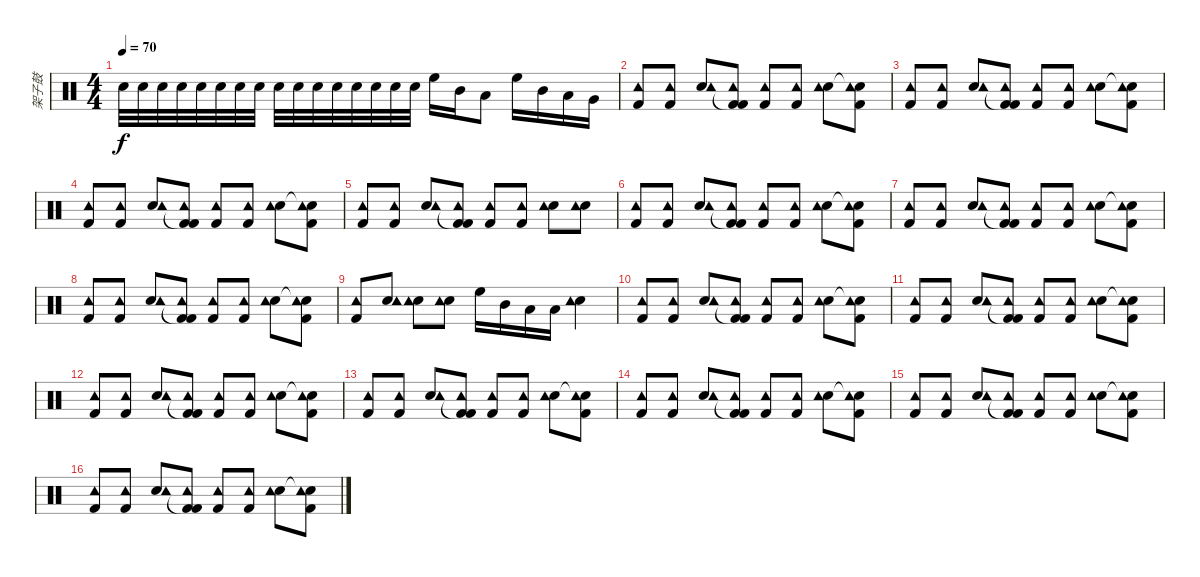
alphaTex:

\track ("架子鼓" "架子鼓") {instrument percussion}
\staff {score}
\articulation defaults
\ts (4 4)
\tempo 70
\clef neutral
\ks c "Snare (hit) 2".32{dy f} "Snare (hit) 2".32 "Snare (hit) 2".32 "Snare (hit) 2".32 "Snare (hit) 2".32 "Snare (hit) 2".32 "Snare (hit) 2".32 "Snare (hit) 2".32 "Snare (hit) 2".32 "Snare (hit) 2".32 "Snare (hit) 2".32 "Snare (hit) 2".32 "Snare (hit) 2".32 "Snare (hit) 2".32 "Snare (hit) 2".32 "Snare (hit) 2".32 "High Floor Tom (hit)".16 "Mid Tom (hit)".16 "Low Tom (hit)".8 "High Floor Tom (hit)".16 "Mid Tom (hit)".16 "Low Tom (hit)".16 "Very Low Tom (hit)".16
|
("Kick (hit) 2" "Tambourine (hit)").8 ("Kick (hit) 2" "Tambourine (hit)").8 ("Snare (hit) 2" "Tambourine (hit)").8 ("Kick (hit) 2"{t} "Tambourine (hit)" "Kick (hit) 2").8 ("Kick (hit) 2" "Tambourine (hit)").8 ("Kick (hit) 2" "Tambourine (hit)").8 ("Snare (hit) 2" "Tambourine (hit)").8 ("Snare (hit) 2"{t} "Tambourine (hit)" "Kick (hit) 2").8 |
("Kick (hit) 2" "Tambourine (hit)").8 ("Kick (hit) 2" "Tambourine (hit)").8 ("Snare (hit) 2" "Tambourine (hit)").8 ("Kick (hit) 2"{t} "Tambourine (hit)" "Kick (hit) 2").8 ("Kick (hit) 2" "Tambourine (hit)").8 ("Kick (hit) 2" "Tambourine (hit)").8 ("Snare (hit) 2" "Tambourine (hit)").8 ("Snare (hit) 2"{t} "Tambourine (hit)" "Kick (hit) 2").8 |
("Kick (hit) 2" "Tambourine (hit)").8 ("Kick (hit) 2" "Tambourine (hit)").8 ("Snare (hit) 2" "Tambourine (hit)").8 ("Kick (hit) 2"{t} "Tambourine (hit)" "Kick (hit) 2").8 ("Kick (hit) 2" "Tambourine (hit)").8 ("Kick (hit) 2" "Tambourine (hit)").8 ("Snare (hit) 2" "Tambourine (hit)").8 ("Snare (hit) 2"{t} "Tambourine (hit)" "Kick (hit) 2").8 |
("Kick (hit) 2" "Tambourine (hit)").8 ("Kick (hit) 2" "Tambourine (hit)").8 ("Snare (hit) 2" "Tambourine (hit)").8 ("Kick (hit) 2"{t} "Tambourine (hit)" "Kick (hit) 2").8 ("Kick (hit) 2" "Tambourine (hit)").8 ("Kick (hit) 2" "Tambourine (hit)").8 ("Snare (hit) 2" "Tambourine (hit)").8 ("Snare (hit) 2" "Tambourine (hit)").8 |
("Kick (hit) 2" "Tambourine (hit)").8 ("Kick (hit) 2" "Tambourine (hit)").8 ("Snare (hit) 2" "Tambourine (hit)").8 ("Kick (hit) 2"{t} "Tambourine (hit)" "Kick (hit) 2").8 ("Kick (hit) 2" "Tambourine (hit)").8 ("Kick (hit) 2" "Tambourine (hit)").8 ("Snare (hit) 2" "Tambourine (hit)").8 ("Snare (hit) 2"{t} "Tambourine (hit)" "Kick (hit) 2").8 |
("Kick (hit) 2" "Tambourine (hit)").8 ("Kick (hit) 2" "Tambourine (hit)").8 ("Snare (hit) 2" "Tambourine (hit)").8 ("Kick (hit) 2"{t} "Tambourine (hit)" "Kick (hit) 2").8 ("Kick (hit) 2" "Tambourine (hit)").8 ("Kick (hit) 2" "Tambourine (hit)").8 ("Snare (hit) 2" "Tambourine (hit)").8 ("Snare (hit) 2"{t} "Tambourine (hit)" "Kick (hit) 2").8 |
("Kick (hit) 2" "Tambourine (hit)").8 ("Kick (hit) 2" "Tambourine (hit)").8 ("Snare (hit) 2" "Tambourine (hit)").8 ("Kick (hit) 2"{t} "Tambourine (hit)" "Kick (hit) 2").8 ("Kick (hit) 2" "Tambourine (hit)").8 ("Kick (hit) 2" "Tambourine (hit)").8 ("Snare (hit) 2" "Tambourine (hit)").8 ("Snare (hit) 2"{t} "Tambourine (hit)" "Kick (hit) 2").8 |
("Kick (hit) 2" "Tambourine (hit)").8 ("Snare (hit) 2" "Tambourine (hit)").8 ("Snare (hit) 2" "Tambourine (hit)").8 ("Snare (hit) 2" "Tambourine (hit)").8 "High Floor Tom (hit)".16 "Mid Tom (hit)".16 "Low Tom (hit)".16 "Low Floor Tom (hit)".16 ("Snare (hit) 2" "Tambourine (hit)").4 |
("Kick (hit) 2" "Tambourine (hit)").8 ("Kick (hit) 2" "Tambourine (hit)").8 ("Snare (hit) 2" "Tambourine (hit)").8 ("Kick (hit) 2"{t} "Tambourine (hit)" "Kick (hit) 2").8 ("Kick (hit) 2" "Tambourine (hit)").8 ("Kick (hit) 2" "Tambourine (hit)").8 ("Snare (hit) 2" "Tambourine (hit)").8 ("Snare (hit) 2"{t} "Tambourine (hit)" "Kick (hit) 2").8 |
("Kick (hit) 2" "Tambourine (hit)").8 ("Kick (hit) 2" "Tambourine (hit)").8 ("Snare (hit) 2" "Tambourine (hit)").8 ("Kick (hit) 2"{t} "Tambourine (hit)" "Kick (hit) 2").8 ("Kick (hit) 2" "Tambourine (hit)").8 ("Kick (hit) 2" "Tambourine (hit)").8 ("Snare (hit) 2" "Tambourine (hit)").8 ("Snare (hit) 2"{t} "Tambourine (hit)" "Kick (hit) 2").8 |
("Kick (hit) 2" "Tambourine (hit)").8 ("Kick (hit) 2" "Tambourine (hit)").8 ("Snare (hit) 2" "Tambourine (hit)").8 ("Kick (hit) 2"{t} "Tambourine (hit)" "Kick (hit) 2").8 ("Kick (hit) 2" "Tambourine (hit)").8 ("Kick (hit) 2" "Tambourine (hit)").8 ("Snare (hit) 2" "Tambourine (hit)").8 ("Snare (hit) 2"{t} "Tambourine (hit)" "Kick (hit) 2").8 |
("Kick (hit) 2" "Tambourine (hit)").8 ("Kick (hit) 2" "Tambourine (hit)").8 ("Snare (hit) 2" "Tambourine (hit)").8 ("Kick (hit) 2"{t} "Tambourine (hit)" "Kick (hit) 2").8 ("Kick (hit) 2" "Tambourine (hit)").8 ("Kick (hit) 2" "Tambourine (hit)").8 ("Snare (hit) 2" "Tambourine (hit)").8 ("Snare (hit) 2"{t} "Tambourine (hit)" "Kick (hit) 2").8 |
("Kick (hit) 2" "Tambourine (hit)").8 ("Kick (hit) 2" "Tambourine (hit)").8 ("Snare (hit) 2" "Tambourine (hit)").8 ("Kick (hit) 2"{t} "Tambourine (hit)" "Kick (hit) 2").8 ("Kick (hit) 2" "Tambourine (hit)").8 ("Kick (hit) 2" "Tambourine (hit)").8 ("Snare (hit) 2" "Tambourine (hit)").8 ("Snare (hit) 2"{t} "Tambourine (hit)" "Kick (hit) 2").8 |
("Kick (hit) 2" "Tambourine (hit)").8 ("Kick (hit) 2" "Tambourine (hit)").8 ("Snare (hit) 2" "Tambourine (hit)").8 ("Kick (hit) 2"{t} "Tambourine (hit)" "Kick (hit) 2").8 ("Kick (hit) 2" "Tambourine (hit)").8 ("Kick (hit) 2" "Tambourine (hit)").8 ("Snare (hit) 2" "Tambourine (hit)").8 ("Snare (hit) 2"{t} "Tambourine (hit)" "Kick (hit) 2").8 |
("Kick (hit) 2" "Tambourine (hit)").8 ("Kick (hit) 2" "Tambourine (hit)").8 ("Snare (hit) 2" "Tambourine (hit)").8 ("Kick (hit) 2"{t} "Tambourine (hit)" "Kick (hit) 2").8 ("Kick (hit) 2" "Tambourine (hit)").8 ("Kick (hit) 2" "Tambourine (hit)").8 ("Snare (hit) 2" "Tambourine (hit)").8 ("Snare (hit) 2"{t} "Tambourine (hit)" "Kick (hit) 2").8
